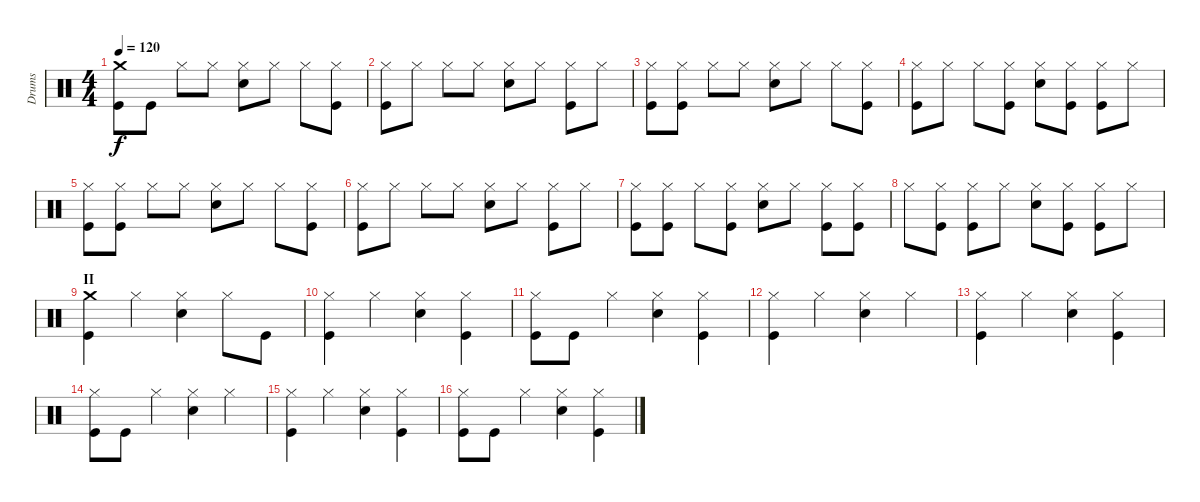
\track ("Drums" "Drums") {instrument percussion}
\staff {score}
\articulation defaults
\ts (4 4)
\tempo 120
\clef neutral
\ks c
("Kick (hit)" "Crash medium (hit)").8{dy f} "Kick (hit)".8 "Hi-Hat (closed)".8 "Hi-Hat (closed)".8 ("Electric Snare (hit)" "Hi-Hat (closed)").8 "Hi-Hat (closed)".8 "Hi-Hat (closed)".8 ("Kick (hit)" "Hi-Hat (closed)").8 |
("Kick (hit)" "Hi-Hat (closed)").8 "Hi-Hat (closed)".8 "Hi-Hat (closed)".8 "Hi-Hat (closed)".8 ("Electric Snare (hit)" "Hi-Hat (closed)").8 "Hi-Hat (closed)".8 ("Kick (hit)" "Hi-Hat (closed)").8 "Hi-Hat (closed)".8 |
("Kick (hit)" "Hi-Hat (closed)").8 ("Kick (hit)" "Hi-Hat (closed)").8 "Hi-Hat (closed)".8 "Hi-Hat (closed)".8 ("Electric Snare (hit)" "Hi-Hat (closed)").8 "Hi-Hat (closed)".8 "Hi-Hat (closed)".8 ("Kick (hit)" "Hi-Hat (closed)").8 |
("Kick (hit)" "Hi-Hat (closed)").8 "Hi-Hat (closed)".8 "Hi-Hat (closed)".8 ("Kick (hit)" "Hi-Hat (closed)").8 ("Electric Snare (hit)" "Hi-Hat (closed)").8 ("Kick (hit)" "Hi-Hat (closed)").8 ("Kick (hit)" "Hi-Hat (closed)").8 "Hi-Hat (closed)".8 |
("Kick (hit)" "Hi-Hat (closed)").8 ("Kick (hit)" "Hi-Hat (closed)").8 "Hi-Hat (closed)".8 "Hi-Hat (closed)".8 ("Electric Snare (hit)" "Hi-Hat (closed)").8 "Hi-Hat (closed)".8 "Hi-Hat (closed)".8 ("Kick (hit)" "Hi-Hat (closed)").8 |
("Kick (hit)" "Hi-Hat (closed)").8 "Hi-Hat (closed)".8 "Hi-Hat (closed)".8 "Hi-Hat (closed)".8 ("Electric Snare (hit)" "Hi-Hat (closed)").8 "Hi-Hat (closed)".8 ("Kick (hit)" "Hi-Hat (closed)").8 "Hi-Hat (closed)".8 |
("Kick (hit)" "Hi-Hat (closed)").8 ("Kick (hit)" "Hi-Hat (closed)").8 "Hi-Hat (closed)".8 ("Kick (hit)" "Hi-Hat (closed)").8 ("Electric Snare (hit)" "Hi-Hat (closed)").8 "Hi-Hat (closed)".8 ("Kick (hit)" "Hi-Hat (closed)").8 ("Kick (hit)" "Hi-Hat (closed)").8 |
"Hi-Hat (closed)".8 ("Kick (hit)" "Hi-Hat (closed)").8 ("Kick (hit)" "Hi-Hat (closed)").8 "Hi-Hat (closed)".8 ("Electric Snare (hit)" "Hi-Hat (closed)").8 ("Kick (hit)" "Hi-Hat (closed)").8 ("Kick (hit)" "Hi-Hat (closed)").8 "Hi-Hat (closed)".8 |
\section ("" "II")
("Kick (hit)" "Crash medium (hit)").4 "Hi-Hat (closed)".4 ("Electric Snare (hit)" "Hi-Hat (closed)").4 "Hi-Hat (closed)".8 "Kick (hit)".8 |
("Kick (hit)" "Hi-Hat (closed)").4 "Hi-Hat (closed)".4 ("Electric Snare (hit)" "Hi-Hat (closed)").4 ("Kick (hit)" "Hi-Hat (closed)").4 |
("Kick (hit)" "Hi-Hat (closed)").8 "Kick (hit)".8 "Hi-Hat (closed)".4 ("Electric Snare (hit)" "Hi-Hat (closed)").4 ("Kick (hit)" "Hi-Hat (closed)").4 |
("Kick (hit)" "Hi-Hat (closed)").4 "Hi-Hat (closed)".4 ("Electric Snare (hit)" "Hi-Hat (closed)").4 "Hi-Hat (closed)".4 |
("Kick (hit)" "Hi-Hat (closed)").4 "Hi-Hat (closed)".4 ("Electric Snare (hit)" "Hi-Hat (closed)").4 ("Kick (hit)" "Hi-Hat (closed)").4 |
("Kick (hit)" "Hi-Hat (closed)").8 "Kick (hit)".8 "Hi-Hat (closed)".4 ("Electric Snare (hit)" "Hi-Hat (closed)").4 "Hi-Hat (closed)".4 |
("Kick (hit)" "Hi-Hat (closed)").4 "Hi-Hat (closed)".4 ("Electric Snare (hit)" "Hi-Hat (closed)").4 ("Kick (hit)" "Hi-Hat (closed)").4 |
("Kick (hit)" "Hi-Hat (closed)").8 "Kick (hit)".8 "Hi-Hat (closed)".4 ("Electric Snare (hit)" "Hi-Hat (closed)").4 ("Kick (hit)" "Hi-Hat (closed)").4
